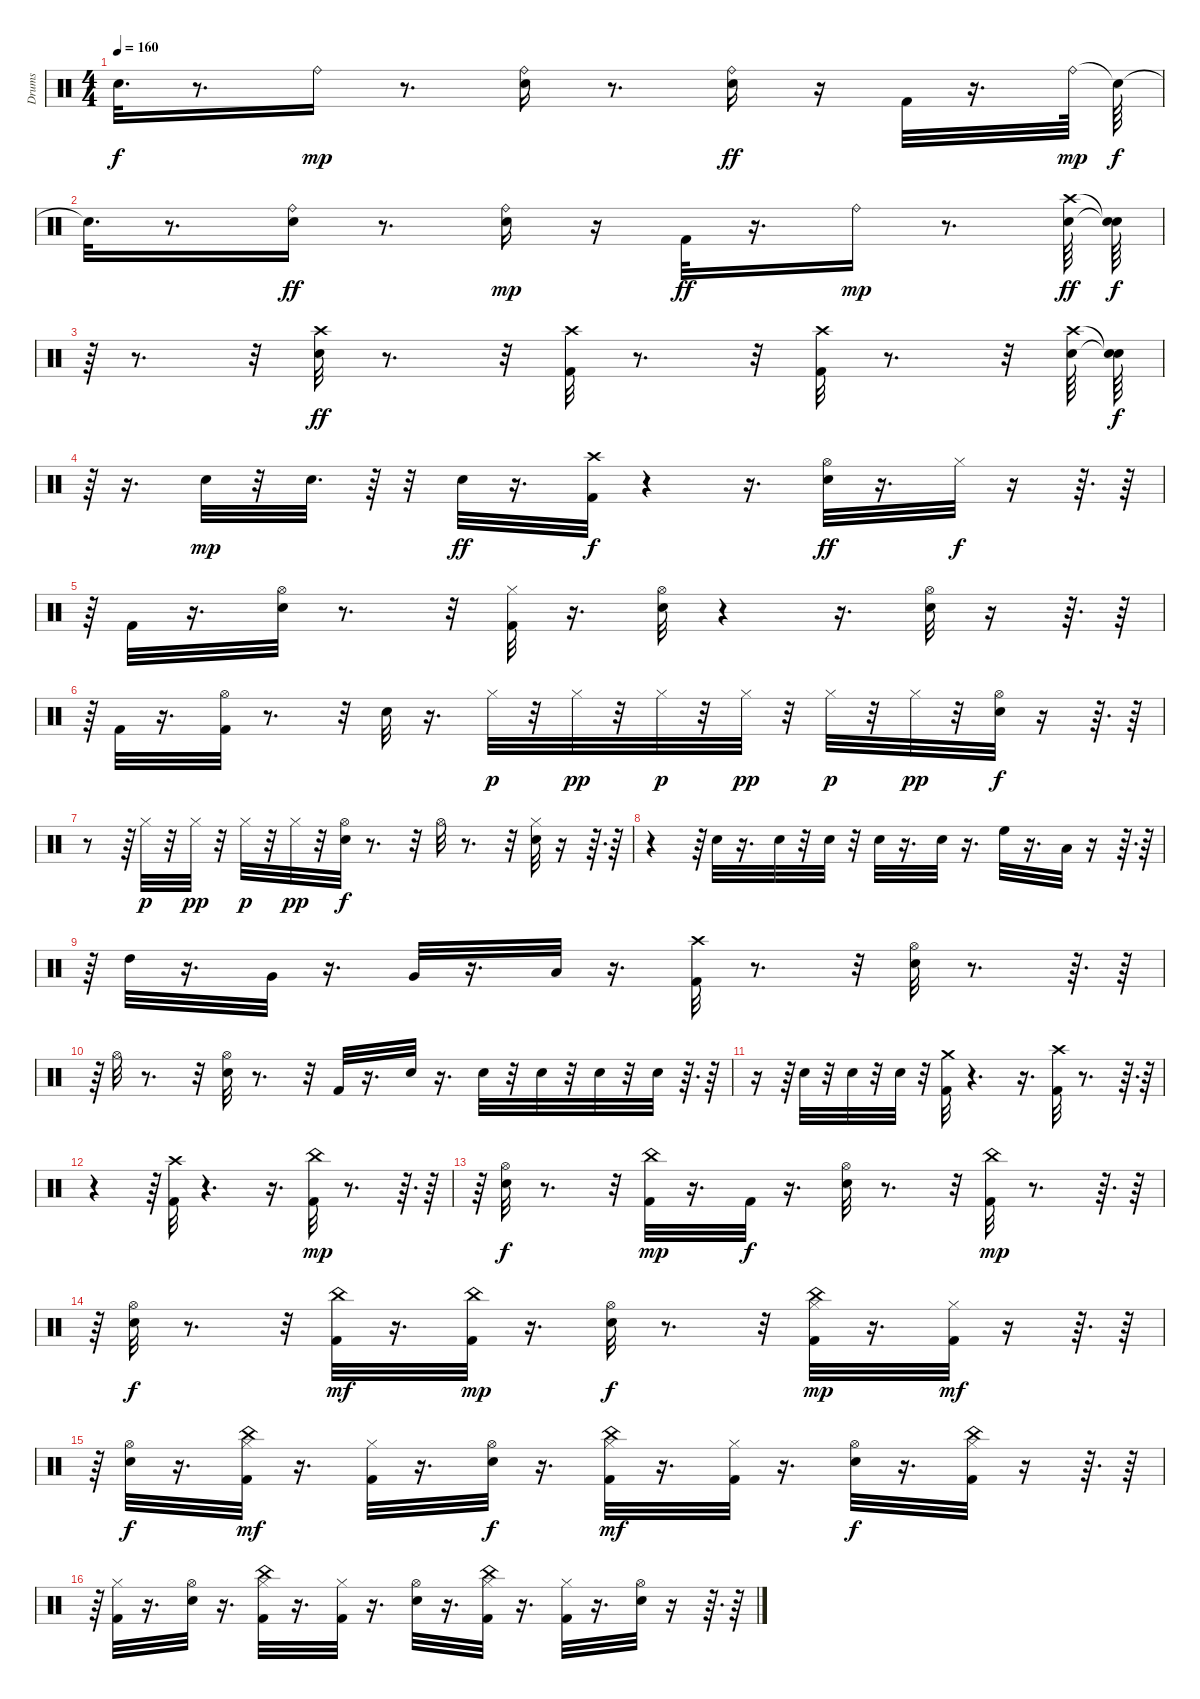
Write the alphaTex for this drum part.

\track ("Drums" "Drums") {instrument percussion}
\staff {score}
\articulation defaults
\ts (4 4)
\tempo 160
\clef neutral
\ks c "Snare (hit)"{t}.32{d dy f}
r.8{d} "Ride (bell)".16{dy mp} r.8{d} ("Snare (hit) 2" "Ride (bell)").16 r.8{d} ("Ride (bell)" "Snare (hit) 2").16{dy ff} r.16 "Kick (hit) 2".32 r.16{d} "Ride (bell)".64{dy mp} "Snare (hit)"{t}.64{dy f} |
"Snare (hit)"{t}.32{d} r.8{d} ("Ride (bell)" "Snare (hit) 2").16{dy ff} r.8{d} ("Snare (hit) 2" "Ride (bell)").16{dy mp} r.16 "Kick (hit) 2".32{dy ff} r.16{d} "Ride (bell)".16{dy mp} r.8{d} ("Crash high (hit)" "Snare (hit) 2").64{dy ff} ("Snare (hit)"{t} "Snare (hit)"{t}).64{dy f} |
r.64 r.8{d} r.32 ("Crash high (hit)" "Snare (hit) 2").32{dy ff} r.8{d} r.32 ("Kick (hit) 2" "Crash high (hit)").32 r.8{d} r.32 ("Crash high (hit)" "Kick (hit) 2").32 r.8{d} r.32 ("Snare (hit) 2" "Crash high (hit)").64 ("Snare (hit)"{t} "Snare (hit)"{t}).64{dy f} |
r.64 r.16{d} "Snare (hit) 2".32{dy mp} r.32 "Snare (hit) 2".32{d} r.64 r.32 "Snare (hit) 2".32{dy ff} r.16{d} ("Kick (hit) 2" "Crash high (hit)").32{dy f} r.4 r.16{d} ("Snare (hit) 2" "Hi-Hat (open)").32{dy ff} r.16{d} "Hi-Hat (closed)".32{dy f} r.16 r.64{d} r.64 |
r.64 "Kick (hit) 2".32 r.16{d} ("Snare (hit) 2" "Hi-Hat (open)").32 r.8{d} r.32 ("Hi-Hat (closed)" "Kick (hit) 2").32 r.16{d} ("Hi-Hat (open)" "Snare (hit) 2").32 r.4 r.16{d} ("Hi-Hat (open)" "Snare (hit) 2").32 r.16 r.64{d} r.64 |
r.64 "Kick (hit) 2".32 r.16{d} ("Kick (hit) 2" "Hi-Hat (open)").32 r.8{d} r.32 "Snare (hit) 2".32 r.16{d} "Hi-Hat (closed)".32{dy p} r.32 "Hi-Hat (closed)".32{dy pp} r.32 "Hi-Hat (closed)".32{dy p} r.32 "Hi-Hat (closed)".32{dy pp} r.32 "Hi-Hat (closed)".32{dy p} r.32 "Hi-Hat (closed)".32{dy pp} r.32 ("Hi-Hat (open)" "Snare (hit) 2").32{dy f} r.16 r.64{d} r.64 |
r.8 r.64 "Hi-Hat (closed)".32{dy p} r.32 "Hi-Hat (closed)".32{dy pp} r.32 "Hi-Hat (closed)".32{dy p} r.32 "Hi-Hat (closed)".32{dy pp} r.32 ("Hi-Hat (open)" "Snare (hit) 2").32{dy f} r.8{d} r.32 "Hi-Hat (open)".32 r.8{d} r.32 ("Snare (hit) 2" "Hi-Hat (closed)").32 r.16 r.64{d} r.64 |
r.4 r.64 "Snare (hit) 2".32 r.16{d} "Snare (hit) 2".32 r.32 "Snare (hit) 2".32 r.32 "Snare (hit) 2".32 r.16{d} "Snare (hit) 2".32 r.16{d} "High Floor Tom (hit)".32 r.16{d} "Low Tom (hit)".32 r.16 r.64{d} r.64 |
r.64 "High Tom (hit)".32 r.16{d} "Very Low Tom (hit)".32 r.16{d} "Very Low Tom (hit)".32 r.16{d} "Low Floor Tom (hit)".32 r.16{d} ("Crash high (hit)" "Kick (hit) 2").32 r.8{d} r.32 ("Hi-Hat (open)" "Snare (hit) 2").32 r.8{d} r.64{d} r.64 |
r.64 "Hi-Hat (open)".32 r.8{d} r.32 ("Hi-Hat (open)" "Snare (hit) 2").32 r.8{d} r.32 "Kick (hit) 2".32 r.16{d} "Snare (hit) 2".32 r.16{d} "Snare (hit) 2".32 r.32 "Snare (hit) 2".32 r.32 "Snare (hit) 2".32 r.32 "Snare (hit) 2".32 r.64{d} r.64 |
r.16 r.64 "Snare (hit) 2".32 r.32 "Snare (hit) 2".32 r.32 "Snare (hit) 2".32 r.32 ("Crash medium (hit)" "Kick (hit) 2").32 r.4{d} r.16{d} ("Crash high (hit)" "Kick (hit) 2").32 r.8{d} r.64{d} r.64 |
r.4 r.64 ("Crash high (hit)" "Kick (hit) 2").32 r.4{d} r.16{d} ("Kick (hit) 2" "China (hit)").32{dy mp} r.8{d} r.64{d} r.64 |
r.64 ("Hi-Hat (open)" "Snare (hit) 2").32{dy f} r.8{d} r.32 ("China (hit)" "Kick (hit) 2").32{dy mp} r.16{d} "Kick (hit) 2".32{dy f} r.16{d} ("Hi-Hat (open)" "Snare (hit) 2").32 r.8{d} r.32 ("China (hit)" "Kick (hit) 2").32{dy mp} r.8{d} r.64{d} r.64 |
r.64 ("Hi-Hat (open)" "Snare (hit) 2").32{dy f} r.8{d} r.32 ("China (hit)" "Kick (hit) 2").32{dy mf} r.16{d} ("China (hit)" "Kick (hit) 2").32{dy mp} r.16{d} ("Hi-Hat (open)" "Snare (hit) 2").32{dy f} r.8{d} r.32 ("Hi-Hat (closed)" "China (hit)" "Kick (hit) 2").32{dy mp} r.16{d} ("Hi-Hat (closed)" "Kick (hit) 2").32{dy mf} r.16 r.64{d} r.64 |
r.64 ("Hi-Hat (open)" "Snare (hit) 2").32{dy f} r.16{d} ("China (hit)" "Hi-Hat (closed)" "Kick (hit) 2").32{dy mf} r.16{d} ("Hi-Hat (closed)" "Kick (hit) 2").32 r.16{d} ("Snare (hit) 2" "Hi-Hat (open)").32{dy f} r.16{d} ("China (hit)" "Hi-Hat (closed)" "Kick (hit) 2").32{dy mf} r.16{d} ("Hi-Hat (closed)" "Kick (hit) 2").32 r.16{d} ("Hi-Hat (open)" "Snare (hit) 2").32{dy f} r.16{d} ("China (hit)" "Hi-Hat (closed)" "Kick (hit) 2").32 r.16 r.64{d} r.64 |
r.64 ("Hi-Hat (closed)" "Kick (hit) 2").32 r.16{d} ("Hi-Hat (open)" "Snare (hit) 2").32 r.16{d} ("China (hit)" "Hi-Hat (closed)" "Kick (hit) 2").32 r.16{d} ("Hi-Hat (closed)" "Kick (hit) 2").32 r.16{d} ("Hi-Hat (open)" "Snare (hit) 2").32 r.16{d} ("China (hit)" "Hi-Hat (closed)" "Kick (hit) 2").32 r.16{d} ("Hi-Hat (closed)" "Kick (hit) 2").32 r.16{d} ("Hi-Hat (open)" "Snare (hit) 2").32 r.16 r.64{d} r.64
